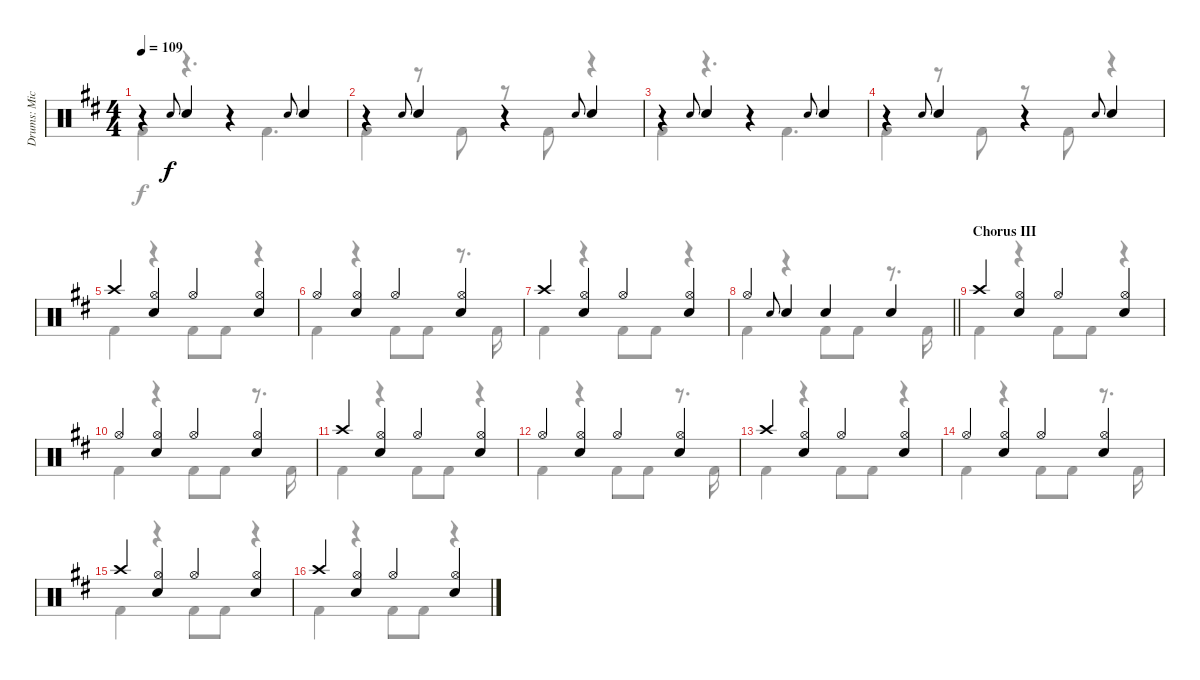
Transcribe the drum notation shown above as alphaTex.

\track ("Drums: Mick" "Drums: Mic") {instrument percussion}
\staff {score}
\articulation defaults
\voice
\ts (4 4)
\tempo 109
\clef neutral
\ks d
r.4{dy f} "Electric Snare (hit)".8{gr onbeat} "Snare (hit) 2".4 r.4 "Electric Snare (hit)".8{gr onbeat} "Snare (hit) 2".4 |
r.4 "Electric Snare (hit)".8{gr onbeat} "Snare (hit) 2".4 r.4 "Electric Snare (hit)".8{gr onbeat} "Snare (hit) 2".4 |
r.4 "Electric Snare (hit)".8{gr onbeat} "Snare (hit) 2".4 r.4 "Electric Snare (hit)".8{gr onbeat} "Snare (hit) 2".4 |
r.4 "Electric Snare (hit)".8{gr onbeat} "Snare (hit) 2".4 r.4 "Electric Snare (hit)".8{gr onbeat} "Snare (hit) 2".4 |
"Crash high (hit)".4 ("Hi-Hat (open)" "Snare (hit) 2").4 "Hi-Hat (open)".4 ("Hi-Hat (open)" "Snare (hit) 2").4 |
"Hi-Hat (open)".4 ("Hi-Hat (open)" "Snare (hit) 2").4 "Hi-Hat (open)".4 ("Hi-Hat (open)" "Snare (hit) 2").4 |
"Crash high (hit)".4 ("Hi-Hat (open)" "Snare (hit) 2").4 "Hi-Hat (open)".4 ("Hi-Hat (open)" "Snare (hit) 2").4 |
\barLineRight lightlight "Hi-Hat (open)".4 "Electric Snare (hit)".8{gr onbeat} "Snare (hit) 2".4 "Snare (hit) 2".4 "Snare (hit) 2".4
|
\section ("" "Chorus III")
"Crash high (hit)".4 ("Hi-Hat (open)" "Snare (hit) 2").4 "Hi-Hat (open)".4 ("Hi-Hat (open)" "Snare (hit) 2").4 |
"Hi-Hat (open)".4 ("Hi-Hat (open)" "Snare (hit) 2").4 "Hi-Hat (open)".4 ("Hi-Hat (open)" "Snare (hit) 2").4 |
"Crash high (hit)".4 ("Hi-Hat (open)" "Snare (hit) 2").4 "Hi-Hat (open)".4 ("Hi-Hat (open)" "Snare (hit) 2").4 |
"Hi-Hat (open)".4 ("Hi-Hat (open)" "Snare (hit) 2").4 "Hi-Hat (open)".4 ("Hi-Hat (open)" "Snare (hit) 2").4 |
"Crash high (hit)".4 ("Hi-Hat (open)" "Snare (hit) 2").4 "Hi-Hat (open)".4 ("Hi-Hat (open)" "Snare (hit) 2").4 |
"Hi-Hat (open)".4 ("Hi-Hat (open)" "Snare (hit) 2").4 "Hi-Hat (open)".4 ("Hi-Hat (open)" "Snare (hit) 2").4 |
"Crash high (hit)".4 ("Hi-Hat (open)" "Snare (hit) 2").4 "Hi-Hat (open)".4 ("Hi-Hat (open)" "Snare (hit) 2").4 |
"Crash high (hit)".4 ("Hi-Hat (open)" "Snare (hit) 2").4 "Hi-Hat (open)".4 ("Hi-Hat (open)" "Snare (hit) 2").4
\voice
\clef neutral
\ottava regular
\simile none
\ks d "Kick (hit) 2".4{dy f}
r.4{d} "Kick (hit) 2".4{d} |
"Kick (hit) 2".4 r.8 "Kick (hit) 2".8 r.8 "Kick (hit) 2".8 r.4 |
"Kick (hit) 2".4 r.4{d} "Kick (hit) 2".4{d} |
"Kick (hit) 2".4 r.8 "Kick (hit) 2".8 r.8 "Kick (hit) 2".8 r.4 |
"Kick (hit) 2".4 r.4 "Kick (hit) 2".8 "Kick (hit) 2".8 r.4 |
"Kick (hit) 2".4 r.4 "Kick (hit) 2".8 "Kick (hit) 2".8 r.8{d} "Kick (hit) 2".16 |
"Kick (hit) 2".4 r.4 "Kick (hit) 2".8 "Kick (hit) 2".8 r.4 |
\barLineRight lightlight "Kick (hit) 2".4
r.4 "Kick (hit) 2".8 "Kick (hit) 2".8 r.8{d} "Kick (hit) 2".16 |
"Kick (hit) 2".4 r.4 "Kick (hit) 2".8 "Kick (hit) 2".8 r.4 |
"Kick (hit) 2".4 r.4 "Kick (hit) 2".8 "Kick (hit) 2".8 r.8{d} "Kick (hit) 2".16 |
"Kick (hit) 2".4 r.4 "Kick (hit) 2".8 "Kick (hit) 2".8 r.4 |
"Kick (hit) 2".4 r.4 "Kick (hit) 2".8 "Kick (hit) 2".8 r.8{d} "Kick (hit) 2".16 |
"Kick (hit) 2".4 r.4 "Kick (hit) 2".8 "Kick (hit) 2".8 r.4 |
"Kick (hit) 2".4 r.4 "Kick (hit) 2".8 "Kick (hit) 2".8 r.8{d} "Kick (hit) 2".16 |
"Kick (hit) 2".4 r.4 "Kick (hit) 2".8 "Kick (hit) 2".8 r.4 |
"Kick (hit) 2".4 r.4 "Kick (hit) 2".8 "Kick (hit) 2".8 r.4
